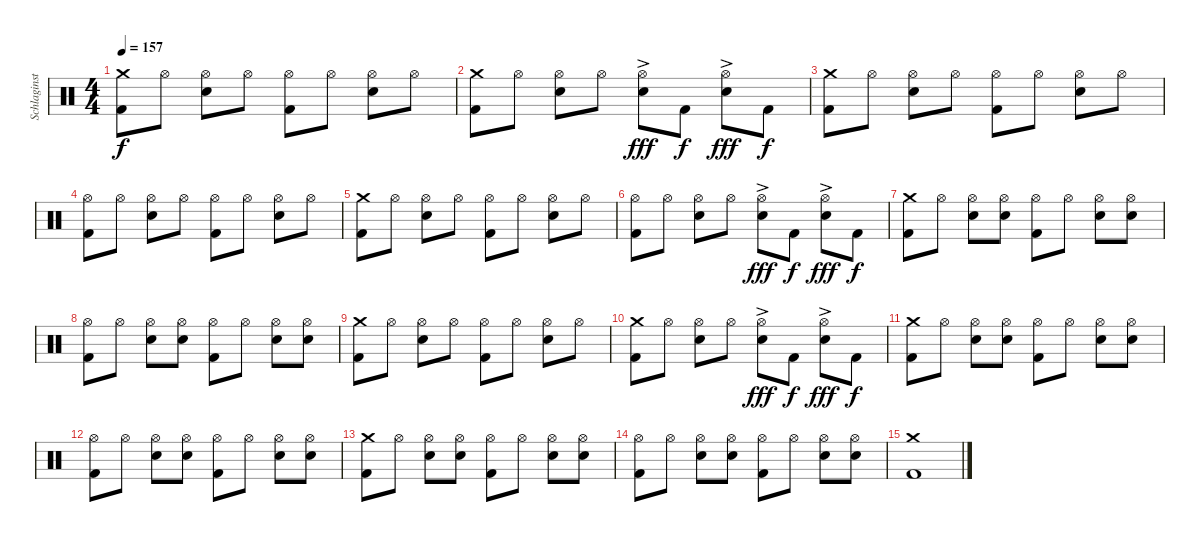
\track ("Schlaginstrumente - Auswahl" "Schlaginst") {instrument percussion}
\staff {score}
\articulation defaults
\ts (4 4)
\tempo 157
\clef neutral
\ks c
("Crash medium (hit)" "Kick (hit) 2").8{dy f} "Hi-Hat (open)".8 ("Hi-Hat (open)" "Electric Snare (hit)").8 "Hi-Hat (open)".8 ("Hi-Hat (open)" "Kick (hit) 2").8 "Hi-Hat (open)".8 ("Hi-Hat (open)" "Electric Snare (hit)").8 "Hi-Hat (open)".8 |
("Crash medium (hit)" "Kick (hit) 2").8 "Hi-Hat (open)".8 ("Hi-Hat (open)" "Electric Snare (hit)").8 "Hi-Hat (open)".8 ("Hi-Hat (open)" "Electric Snare (hit)"{ac}).8{dy fff} "Kick (hit) 2".8{dy f} ("Hi-Hat (open)" "Electric Snare (hit)"{ac}).8{dy fff} "Kick (hit) 2".8{dy f} |
("Crash medium (hit)" "Kick (hit) 2").8 "Hi-Hat (open)".8 ("Hi-Hat (open)" "Electric Snare (hit)").8 "Hi-Hat (open)".8 ("Hi-Hat (open)" "Kick (hit) 2").8 "Hi-Hat (open)".8 ("Hi-Hat (open)" "Electric Snare (hit)").8 "Hi-Hat (open)".8 |
("Hi-Hat (open)" "Kick (hit) 2").8 "Hi-Hat (open)".8 ("Hi-Hat (open)" "Electric Snare (hit)").8 "Hi-Hat (open)".8 ("Hi-Hat (open)" "Kick (hit) 2").8 "Hi-Hat (open)".8 ("Hi-Hat (open)" "Electric Snare (hit)").8 "Hi-Hat (open)".8 |
("Crash medium (hit)" "Kick (hit) 2").8 "Hi-Hat (open)".8 ("Hi-Hat (open)" "Electric Snare (hit)").8 "Hi-Hat (open)".8 ("Hi-Hat (open)" "Kick (hit) 2").8 "Hi-Hat (open)".8 ("Hi-Hat (open)" "Electric Snare (hit)").8 "Hi-Hat (open)".8 |
("Hi-Hat (open)" "Kick (hit) 2").8 "Hi-Hat (open)".8 ("Hi-Hat (open)" "Electric Snare (hit)").8 "Hi-Hat (open)".8 ("Hi-Hat (open)" "Electric Snare (hit)"{ac}).8{dy fff} "Kick (hit) 2".8{dy f} ("Hi-Hat (open)" "Electric Snare (hit)"{ac}).8{dy fff} "Kick (hit) 2".8{dy f} |
("Crash medium (hit)" "Kick (hit) 2").8 "Hi-Hat (open)".8 ("Hi-Hat (open)" "Electric Snare (hit)").8 ("Hi-Hat (open)" "Electric Snare (hit)").8 ("Hi-Hat (open)" "Kick (hit) 2").8 "Hi-Hat (open)".8 ("Hi-Hat (open)" "Electric Snare (hit)").8 ("Hi-Hat (open)" "Electric Snare (hit)").8 |
("Hi-Hat (open)" "Kick (hit) 2").8 "Hi-Hat (open)".8 ("Hi-Hat (open)" "Electric Snare (hit)").8 ("Hi-Hat (open)" "Electric Snare (hit)").8 ("Hi-Hat (open)" "Kick (hit) 2").8 "Hi-Hat (open)".8 ("Hi-Hat (open)" "Electric Snare (hit)").8 ("Hi-Hat (open)" "Electric Snare (hit)").8 |
("Crash medium (hit)" "Kick (hit) 2").8 "Hi-Hat (open)".8 ("Hi-Hat (open)" "Electric Snare (hit)").8 "Hi-Hat (open)".8 ("Hi-Hat (open)" "Kick (hit) 2").8 "Hi-Hat (open)".8 ("Hi-Hat (open)" "Electric Snare (hit)").8 "Hi-Hat (open)".8 |
("Crash medium (hit)" "Kick (hit) 2").8 "Hi-Hat (open)".8 ("Hi-Hat (open)" "Electric Snare (hit)").8 "Hi-Hat (open)".8 ("Hi-Hat (open)" "Electric Snare (hit)"{ac}).8{dy fff} "Kick (hit) 2".8{dy f} ("Hi-Hat (open)" "Electric Snare (hit)"{ac}).8{dy fff} "Kick (hit) 2".8{dy f} |
("Crash medium (hit)" "Kick (hit) 2").8 "Hi-Hat (open)".8 ("Hi-Hat (open)" "Electric Snare (hit)").8 ("Hi-Hat (open)" "Electric Snare (hit)").8 ("Hi-Hat (open)" "Kick (hit) 2").8 "Hi-Hat (open)".8 ("Hi-Hat (open)" "Electric Snare (hit)").8 ("Hi-Hat (open)" "Electric Snare (hit)").8 |
("Hi-Hat (open)" "Kick (hit) 2").8 "Hi-Hat (open)".8 ("Hi-Hat (open)" "Electric Snare (hit)").8 ("Hi-Hat (open)" "Electric Snare (hit)").8 ("Hi-Hat (open)" "Kick (hit) 2").8 "Hi-Hat (open)".8 ("Hi-Hat (open)" "Electric Snare (hit)").8 ("Hi-Hat (open)" "Electric Snare (hit)").8 |
("Crash medium (hit)" "Kick (hit) 2").8 "Hi-Hat (open)".8 ("Hi-Hat (open)" "Electric Snare (hit)").8 ("Hi-Hat (open)" "Electric Snare (hit)").8 ("Hi-Hat (open)" "Kick (hit) 2").8 "Hi-Hat (open)".8 ("Hi-Hat (open)" "Electric Snare (hit)").8 ("Hi-Hat (open)" "Electric Snare (hit)").8 |
("Hi-Hat (open)" "Kick (hit) 2").8 "Hi-Hat (open)".8 ("Hi-Hat (open)" "Electric Snare (hit)").8 ("Hi-Hat (open)" "Electric Snare (hit)").8 ("Hi-Hat (open)" "Kick (hit) 2").8 "Hi-Hat (open)".8 ("Hi-Hat (open)" "Electric Snare (hit)").8 ("Hi-Hat (open)" "Electric Snare (hit)").8 |
("Crash medium (hit)" "Kick (hit) 2").1
